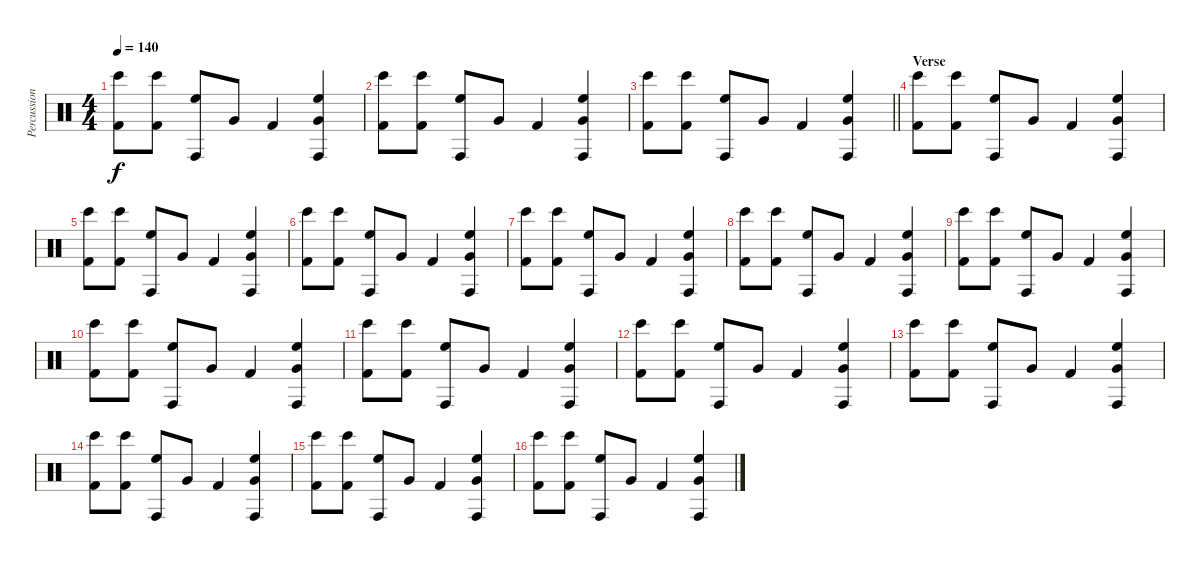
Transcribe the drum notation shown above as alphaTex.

\track ("Percussion" "Percussion") {instrument percussion}
\staff {score}
\articulation defaults
\ts (4 4)
\tempo 140
\clef neutral
\ks c
("Bongo High (hit)" "Kick (hit) 2").8{dy f} ("Bongo High (hit)" "Kick (hit) 2").8 ("Conga high (hit)" "High Floor Tom (hit)").8 "Very Low Tom (hit)".8 "Kick (hit) 2".4 ("Conga high (hit)" "High Floor Tom (hit)" "Very Low Tom (hit)").4 |
("Bongo High (hit)" "Kick (hit) 2").8 ("Bongo High (hit)" "Kick (hit) 2").8 ("Conga high (hit)" "High Floor Tom (hit)").8 "Very Low Tom (hit)".8 "Kick (hit) 2".4 ("Conga high (hit)" "High Floor Tom (hit)" "Very Low Tom (hit)").4 |
\barLineRight lightlight
("Bongo High (hit)" "Kick (hit) 2").8 ("Bongo High (hit)" "Kick (hit) 2").8 ("Conga high (hit)" "High Floor Tom (hit)").8 "Very Low Tom (hit)".8 "Kick (hit) 2".4 ("Conga high (hit)" "High Floor Tom (hit)" "Very Low Tom (hit)").4 |
\section ("" "Verse")
("Bongo High (hit)" "Kick (hit) 2").8 ("Bongo High (hit)" "Kick (hit) 2").8 ("Conga high (hit)" "High Floor Tom (hit)").8 "Very Low Tom (hit)".8 "Kick (hit) 2".4 ("Conga high (hit)" "High Floor Tom (hit)" "Very Low Tom (hit)").4 |
("Bongo High (hit)" "Kick (hit) 2").8 ("Bongo High (hit)" "Kick (hit) 2").8 ("Conga high (hit)" "High Floor Tom (hit)").8 "Very Low Tom (hit)".8 "Kick (hit) 2".4 ("Conga high (hit)" "High Floor Tom (hit)" "Very Low Tom (hit)").4 |
("Bongo High (hit)" "Kick (hit) 2").8 ("Bongo High (hit)" "Kick (hit) 2").8 ("Conga high (hit)" "High Floor Tom (hit)").8 "Very Low Tom (hit)".8 "Kick (hit) 2".4 ("Conga high (hit)" "High Floor Tom (hit)" "Very Low Tom (hit)").4 |
("Bongo High (hit)" "Kick (hit) 2").8 ("Bongo High (hit)" "Kick (hit) 2").8 ("Conga high (hit)" "High Floor Tom (hit)").8 "Very Low Tom (hit)".8 "Kick (hit) 2".4 ("Conga high (hit)" "High Floor Tom (hit)" "Very Low Tom (hit)").4 |
("Bongo High (hit)" "Kick (hit) 2").8 ("Bongo High (hit)" "Kick (hit) 2").8 ("Conga high (hit)" "High Floor Tom (hit)").8 "Very Low Tom (hit)".8 "Kick (hit) 2".4 ("Conga high (hit)" "High Floor Tom (hit)" "Very Low Tom (hit)").4 |
("Bongo High (hit)" "Kick (hit) 2").8 ("Bongo High (hit)" "Kick (hit) 2").8 ("Conga high (hit)" "High Floor Tom (hit)").8 "Very Low Tom (hit)".8 "Kick (hit) 2".4 ("Conga high (hit)" "High Floor Tom (hit)" "Very Low Tom (hit)").4 |
("Bongo High (hit)" "Kick (hit) 2").8 ("Bongo High (hit)" "Kick (hit) 2").8 ("Conga high (hit)" "High Floor Tom (hit)").8 "Very Low Tom (hit)".8 "Kick (hit) 2".4 ("Conga high (hit)" "High Floor Tom (hit)" "Very Low Tom (hit)").4 |
("Bongo High (hit)" "Kick (hit) 2").8 ("Bongo High (hit)" "Kick (hit) 2").8 ("Conga high (hit)" "High Floor Tom (hit)").8 "Very Low Tom (hit)".8 "Kick (hit) 2".4 ("Conga high (hit)" "High Floor Tom (hit)" "Very Low Tom (hit)").4 |
("Bongo High (hit)" "Kick (hit) 2").8 ("Bongo High (hit)" "Kick (hit) 2").8 ("Conga high (hit)" "High Floor Tom (hit)").8 "Very Low Tom (hit)".8 "Kick (hit) 2".4 ("Conga high (hit)" "High Floor Tom (hit)" "Very Low Tom (hit)").4 |
("Bongo High (hit)" "Kick (hit) 2").8 ("Bongo High (hit)" "Kick (hit) 2").8 ("Conga high (hit)" "High Floor Tom (hit)").8 "Very Low Tom (hit)".8 "Kick (hit) 2".4 ("Conga high (hit)" "High Floor Tom (hit)" "Very Low Tom (hit)").4 |
("Bongo High (hit)" "Kick (hit) 2").8 ("Bongo High (hit)" "Kick (hit) 2").8 ("Conga high (hit)" "High Floor Tom (hit)").8 "Very Low Tom (hit)".8 "Kick (hit) 2".4 ("Conga high (hit)" "High Floor Tom (hit)" "Very Low Tom (hit)").4 |
("Bongo High (hit)" "Kick (hit) 2").8 ("Bongo High (hit)" "Kick (hit) 2").8 ("Conga high (hit)" "High Floor Tom (hit)").8 "Very Low Tom (hit)".8 "Kick (hit) 2".4 ("Conga high (hit)" "High Floor Tom (hit)" "Very Low Tom (hit)").4 |
("Bongo High (hit)" "Kick (hit) 2").8 ("Bongo High (hit)" "Kick (hit) 2").8 ("Conga high (hit)" "High Floor Tom (hit)").8 "Very Low Tom (hit)".8 "Kick (hit) 2".4 ("Conga high (hit)" "High Floor Tom (hit)" "Very Low Tom (hit)").4
